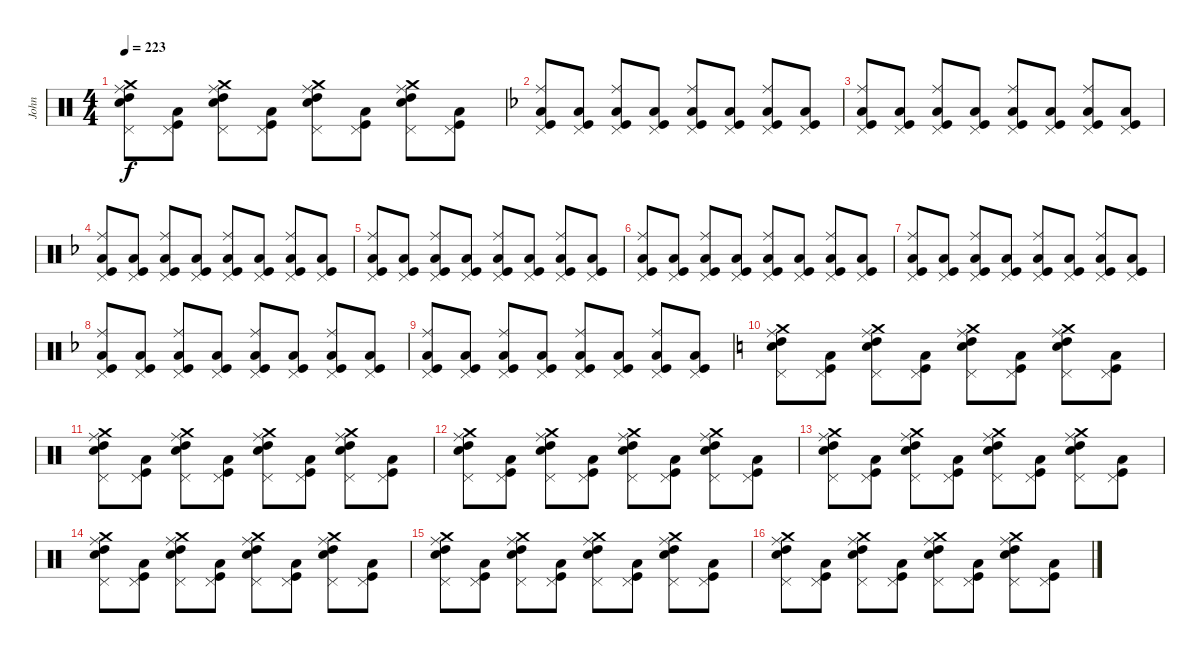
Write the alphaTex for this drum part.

\track ("John" "John") {instrument percussion}
\staff {score}
\articulation defaults
\ts (4 4)
\tempo 223
\clef neutral
\ks c
("Crash medium (hit)" "Ride (middle)" "Snare (hit) 2" "High Tom (hit)" "Pedal Hi-Hat (hit)").8{dy f} ("Kick (hit)" "Low Tom (hit)" "Pedal Hi-Hat (hit)").8 ("Crash medium (hit)" "Ride (middle)" "Snare (hit) 2" "High Tom (hit)" "Pedal Hi-Hat (hit)").8 ("Kick (hit)" "Low Tom (hit)" "Pedal Hi-Hat (hit)").8 ("Crash medium (hit)" "Ride (middle)" "Snare (hit) 2" "High Tom (hit)" "Pedal Hi-Hat (hit)").8 ("Kick (hit)" "Low Tom (hit)" "Pedal Hi-Hat (hit)").8 ("Crash medium (hit)" "Ride (middle)" "Snare (hit) 2" "High Tom (hit)" "Pedal Hi-Hat (hit)").8 ("Kick (hit)" "Low Tom (hit)" "Pedal Hi-Hat (hit)").8 |
\ks f
("Ride (middle)" "Kick (hit)" "Low Tom (hit)" "Pedal Hi-Hat (hit)").8 ("Kick (hit)" "Low Tom (hit)" "Pedal Hi-Hat (hit)").8 ("Ride (middle)" "Kick (hit)" "Low Tom (hit)" "Pedal Hi-Hat (hit)").8 ("Kick (hit)" "Low Tom (hit)" "Pedal Hi-Hat (hit)").8 ("Ride (middle)" "Kick (hit)" "Low Tom (hit)" "Pedal Hi-Hat (hit)").8 ("Kick (hit)" "Low Tom (hit)" "Pedal Hi-Hat (hit)").8 ("Ride (middle)" "Kick (hit)" "Low Tom (hit)" "Pedal Hi-Hat (hit)").8 ("Kick (hit)" "Low Tom (hit)" "Pedal Hi-Hat (hit)").8 |
("Ride (middle)" "Kick (hit)" "Low Tom (hit)" "Pedal Hi-Hat (hit)").8 ("Kick (hit)" "Low Tom (hit)" "Pedal Hi-Hat (hit)").8 ("Ride (middle)" "Kick (hit)" "Low Tom (hit)" "Pedal Hi-Hat (hit)").8 ("Kick (hit)" "Low Tom (hit)" "Pedal Hi-Hat (hit)").8 ("Ride (middle)" "Kick (hit)" "Low Tom (hit)" "Pedal Hi-Hat (hit)").8 ("Kick (hit)" "Low Tom (hit)" "Pedal Hi-Hat (hit)").8 ("Ride (middle)" "Kick (hit)" "Low Tom (hit)" "Pedal Hi-Hat (hit)").8 ("Kick (hit)" "Low Tom (hit)" "Pedal Hi-Hat (hit)").8 |
("Ride (middle)" "Kick (hit)" "Low Tom (hit)" "Pedal Hi-Hat (hit)").8 ("Kick (hit)" "Low Tom (hit)" "Pedal Hi-Hat (hit)").8 ("Ride (middle)" "Kick (hit)" "Low Tom (hit)" "Pedal Hi-Hat (hit)").8 ("Kick (hit)" "Low Tom (hit)" "Pedal Hi-Hat (hit)").8 ("Ride (middle)" "Kick (hit)" "Low Tom (hit)" "Pedal Hi-Hat (hit)").8 ("Kick (hit)" "Low Tom (hit)" "Pedal Hi-Hat (hit)").8 ("Ride (middle)" "Kick (hit)" "Low Tom (hit)" "Pedal Hi-Hat (hit)").8 ("Kick (hit)" "Low Tom (hit)" "Pedal Hi-Hat (hit)").8 |
("Ride (middle)" "Kick (hit)" "Low Tom (hit)" "Pedal Hi-Hat (hit)").8 ("Kick (hit)" "Low Tom (hit)" "Pedal Hi-Hat (hit)").8 ("Ride (middle)" "Kick (hit)" "Low Tom (hit)" "Pedal Hi-Hat (hit)").8 ("Kick (hit)" "Low Tom (hit)" "Pedal Hi-Hat (hit)").8 ("Ride (middle)" "Kick (hit)" "Low Tom (hit)" "Pedal Hi-Hat (hit)").8 ("Kick (hit)" "Low Tom (hit)" "Pedal Hi-Hat (hit)").8 ("Ride (middle)" "Kick (hit)" "Low Tom (hit)" "Pedal Hi-Hat (hit)").8 ("Kick (hit)" "Low Tom (hit)" "Pedal Hi-Hat (hit)").8 |
("Ride (middle)" "Kick (hit)" "Low Tom (hit)" "Pedal Hi-Hat (hit)").8 ("Kick (hit)" "Low Tom (hit)" "Pedal Hi-Hat (hit)").8 ("Ride (middle)" "Kick (hit)" "Low Tom (hit)" "Pedal Hi-Hat (hit)").8 ("Kick (hit)" "Low Tom (hit)" "Pedal Hi-Hat (hit)").8 ("Ride (middle)" "Kick (hit)" "Low Tom (hit)" "Pedal Hi-Hat (hit)").8 ("Kick (hit)" "Low Tom (hit)" "Pedal Hi-Hat (hit)").8 ("Ride (middle)" "Kick (hit)" "Low Tom (hit)" "Pedal Hi-Hat (hit)").8 ("Kick (hit)" "Low Tom (hit)" "Pedal Hi-Hat (hit)").8 |
("Ride (middle)" "Kick (hit)" "Low Tom (hit)" "Pedal Hi-Hat (hit)").8 ("Kick (hit)" "Low Tom (hit)" "Pedal Hi-Hat (hit)").8 ("Ride (middle)" "Kick (hit)" "Low Tom (hit)" "Pedal Hi-Hat (hit)").8 ("Kick (hit)" "Low Tom (hit)" "Pedal Hi-Hat (hit)").8 ("Ride (middle)" "Kick (hit)" "Low Tom (hit)" "Pedal Hi-Hat (hit)").8 ("Kick (hit)" "Low Tom (hit)" "Pedal Hi-Hat (hit)").8 ("Ride (middle)" "Kick (hit)" "Low Tom (hit)" "Pedal Hi-Hat (hit)").8 ("Kick (hit)" "Low Tom (hit)" "Pedal Hi-Hat (hit)").8 |
("Ride (middle)" "Kick (hit)" "Low Tom (hit)" "Pedal Hi-Hat (hit)").8 ("Kick (hit)" "Low Tom (hit)" "Pedal Hi-Hat (hit)").8 ("Ride (middle)" "Kick (hit)" "Low Tom (hit)" "Pedal Hi-Hat (hit)").8 ("Kick (hit)" "Low Tom (hit)" "Pedal Hi-Hat (hit)").8 ("Ride (middle)" "Kick (hit)" "Low Tom (hit)" "Pedal Hi-Hat (hit)").8 ("Kick (hit)" "Low Tom (hit)" "Pedal Hi-Hat (hit)").8 ("Ride (middle)" "Kick (hit)" "Low Tom (hit)" "Pedal Hi-Hat (hit)").8 ("Kick (hit)" "Low Tom (hit)" "Pedal Hi-Hat (hit)").8 |
("Ride (middle)" "Kick (hit)" "Low Tom (hit)" "Pedal Hi-Hat (hit)").8 ("Kick (hit)" "Low Tom (hit)" "Pedal Hi-Hat (hit)").8 ("Ride (middle)" "Kick (hit)" "Low Tom (hit)" "Pedal Hi-Hat (hit)").8 ("Kick (hit)" "Low Tom (hit)" "Pedal Hi-Hat (hit)").8 ("Ride (middle)" "Kick (hit)" "Low Tom (hit)" "Pedal Hi-Hat (hit)").8 ("Kick (hit)" "Low Tom (hit)" "Pedal Hi-Hat (hit)").8 ("Ride (middle)" "Kick (hit)" "Low Tom (hit)" "Pedal Hi-Hat (hit)").8 ("Kick (hit)" "Low Tom (hit)" "Pedal Hi-Hat (hit)").8 |
\ks c
("Crash medium (hit)" "Ride (middle)" "Snare (hit) 2" "High Tom (hit)" "Pedal Hi-Hat (hit)").8 ("Kick (hit)" "Low Tom (hit)" "Pedal Hi-Hat (hit)").8 ("Crash medium (hit)" "Ride (middle)" "Snare (hit) 2" "High Tom (hit)" "Pedal Hi-Hat (hit)").8 ("Kick (hit)" "Low Tom (hit)" "Pedal Hi-Hat (hit)").8 ("Crash medium (hit)" "Ride (middle)" "Snare (hit) 2" "High Tom (hit)" "Pedal Hi-Hat (hit)").8 ("Kick (hit)" "Low Tom (hit)" "Pedal Hi-Hat (hit)").8 ("Crash medium (hit)" "Ride (middle)" "Snare (hit) 2" "High Tom (hit)" "Pedal Hi-Hat (hit)").8 ("Kick (hit)" "Low Tom (hit)" "Pedal Hi-Hat (hit)").8 |
("Crash medium (hit)" "Ride (middle)" "Snare (hit) 2" "High Tom (hit)" "Pedal Hi-Hat (hit)").8 ("Kick (hit)" "Low Tom (hit)" "Pedal Hi-Hat (hit)").8 ("Crash medium (hit)" "Ride (middle)" "Snare (hit) 2" "High Tom (hit)" "Pedal Hi-Hat (hit)").8 ("Kick (hit)" "Low Tom (hit)" "Pedal Hi-Hat (hit)").8 ("Crash medium (hit)" "Ride (middle)" "Snare (hit) 2" "High Tom (hit)" "Pedal Hi-Hat (hit)").8 ("Kick (hit)" "Low Tom (hit)" "Pedal Hi-Hat (hit)").8 ("Crash medium (hit)" "Ride (middle)" "Snare (hit) 2" "High Tom (hit)" "Pedal Hi-Hat (hit)").8 ("Kick (hit)" "Low Tom (hit)" "Pedal Hi-Hat (hit)").8 |
("Crash medium (hit)" "Ride (middle)" "Snare (hit) 2" "High Tom (hit)" "Pedal Hi-Hat (hit)").8 ("Kick (hit)" "Low Tom (hit)" "Pedal Hi-Hat (hit)").8 ("Crash medium (hit)" "Ride (middle)" "Snare (hit) 2" "High Tom (hit)" "Pedal Hi-Hat (hit)").8 ("Kick (hit)" "Low Tom (hit)" "Pedal Hi-Hat (hit)").8 ("Crash medium (hit)" "Ride (middle)" "Snare (hit) 2" "High Tom (hit)" "Pedal Hi-Hat (hit)").8 ("Kick (hit)" "Low Tom (hit)" "Pedal Hi-Hat (hit)").8 ("Crash medium (hit)" "Ride (middle)" "Snare (hit) 2" "High Tom (hit)" "Pedal Hi-Hat (hit)").8 ("Kick (hit)" "Low Tom (hit)" "Pedal Hi-Hat (hit)").8 |
("Crash medium (hit)" "Ride (middle)" "Snare (hit) 2" "High Tom (hit)" "Pedal Hi-Hat (hit)").8 ("Kick (hit)" "Low Tom (hit)" "Pedal Hi-Hat (hit)").8 ("Crash medium (hit)" "Ride (middle)" "Snare (hit) 2" "High Tom (hit)" "Pedal Hi-Hat (hit)").8 ("Kick (hit)" "Low Tom (hit)" "Pedal Hi-Hat (hit)").8 ("Crash medium (hit)" "Ride (middle)" "Snare (hit) 2" "High Tom (hit)" "Pedal Hi-Hat (hit)").8 ("Kick (hit)" "Low Tom (hit)" "Pedal Hi-Hat (hit)").8 ("Crash medium (hit)" "Ride (middle)" "Snare (hit) 2" "High Tom (hit)" "Pedal Hi-Hat (hit)").8 ("Kick (hit)" "Low Tom (hit)" "Pedal Hi-Hat (hit)").8 |
("Crash medium (hit)" "Ride (middle)" "Snare (hit) 2" "High Tom (hit)" "Pedal Hi-Hat (hit)").8 ("Kick (hit)" "Low Tom (hit)" "Pedal Hi-Hat (hit)").8 ("Crash medium (hit)" "Ride (middle)" "Snare (hit) 2" "High Tom (hit)" "Pedal Hi-Hat (hit)").8 ("Kick (hit)" "Low Tom (hit)" "Pedal Hi-Hat (hit)").8 ("Crash medium (hit)" "Ride (middle)" "Snare (hit) 2" "High Tom (hit)" "Pedal Hi-Hat (hit)").8 ("Kick (hit)" "Low Tom (hit)" "Pedal Hi-Hat (hit)").8 ("Crash medium (hit)" "Ride (middle)" "Snare (hit) 2" "High Tom (hit)" "Pedal Hi-Hat (hit)").8 ("Kick (hit)" "Low Tom (hit)" "Pedal Hi-Hat (hit)").8 |
("Crash medium (hit)" "Ride (middle)" "Snare (hit) 2" "High Tom (hit)" "Pedal Hi-Hat (hit)").8 ("Kick (hit)" "Low Tom (hit)" "Pedal Hi-Hat (hit)").8 ("Crash medium (hit)" "Ride (middle)" "Snare (hit) 2" "High Tom (hit)" "Pedal Hi-Hat (hit)").8 ("Kick (hit)" "Low Tom (hit)" "Pedal Hi-Hat (hit)").8 ("Crash medium (hit)" "Ride (middle)" "Snare (hit) 2" "High Tom (hit)" "Pedal Hi-Hat (hit)").8 ("Kick (hit)" "Low Tom (hit)" "Pedal Hi-Hat (hit)").8 ("Crash medium (hit)" "Ride (middle)" "Snare (hit) 2" "High Tom (hit)" "Pedal Hi-Hat (hit)").8 ("Kick (hit)" "Low Tom (hit)" "Pedal Hi-Hat (hit)").8 |
("Crash medium (hit)" "Ride (middle)" "Snare (hit) 2" "High Tom (hit)" "Pedal Hi-Hat (hit)").8 ("Kick (hit)" "Low Tom (hit)" "Pedal Hi-Hat (hit)").8 ("Crash medium (hit)" "Ride (middle)" "Snare (hit) 2" "High Tom (hit)" "Pedal Hi-Hat (hit)").8 ("Kick (hit)" "Low Tom (hit)" "Pedal Hi-Hat (hit)").8 ("Crash medium (hit)" "Ride (middle)" "Snare (hit) 2" "High Tom (hit)" "Pedal Hi-Hat (hit)").8 ("Kick (hit)" "Low Tom (hit)" "Pedal Hi-Hat (hit)").8 ("Crash medium (hit)" "Ride (middle)" "Snare (hit) 2" "High Tom (hit)" "Pedal Hi-Hat (hit)").8 ("Kick (hit)" "Low Tom (hit)" "Pedal Hi-Hat (hit)").8
